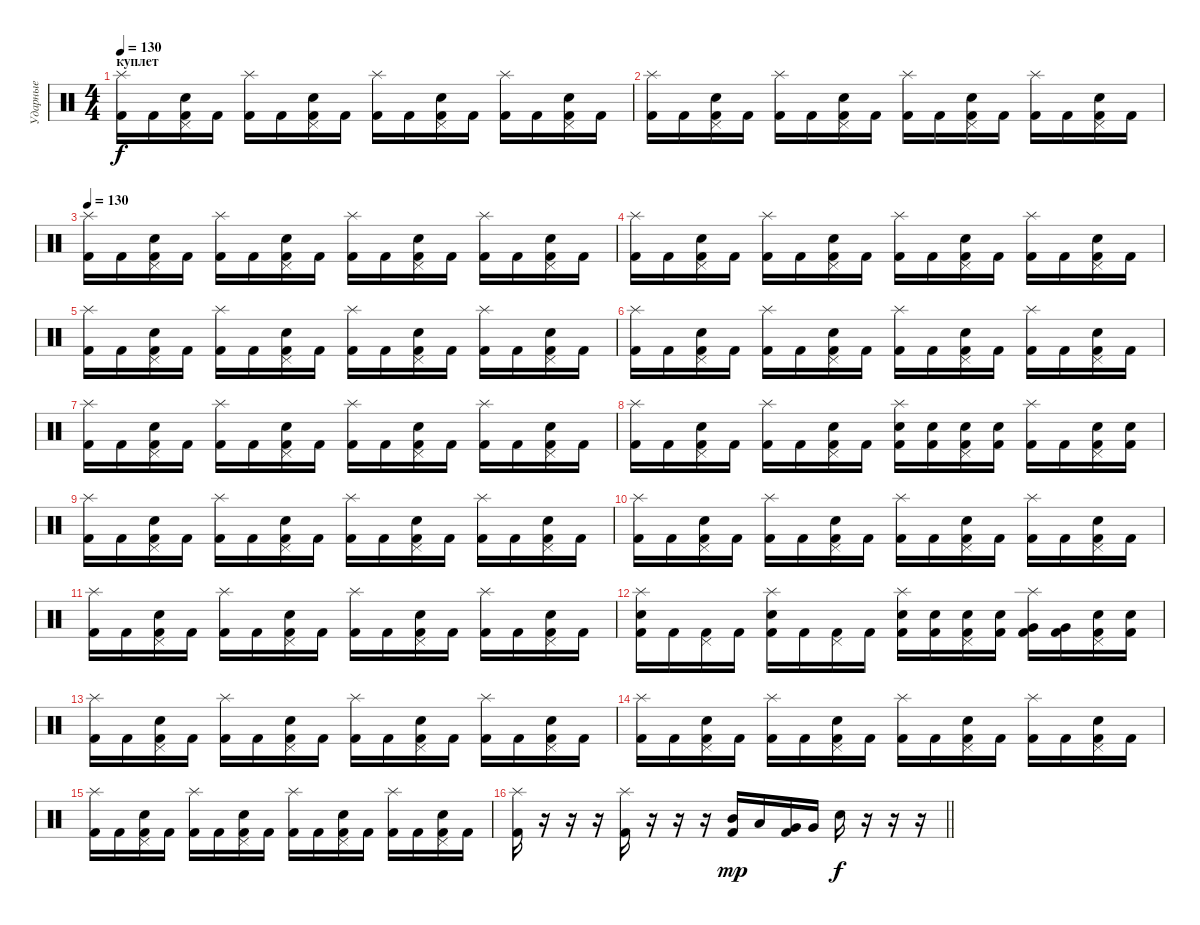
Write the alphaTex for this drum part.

\track ("Ударные" "Ударные") {instrument percussion}
\staff {score}
\articulation defaults
\ts (4 4)
\section ("" "куплет")
\tempo 130
\clef neutral
\ks c
("Splash (hit)" "Kick (hit) 2").16{dy f} "Kick (hit) 2".16 ("Pedal Hi-Hat (hit)" "Electric Snare (hit)" "Kick (hit) 2").16 "Kick (hit) 2".16 ("Splash (hit)" "Kick (hit) 2").16 "Kick (hit) 2".16 ("Pedal Hi-Hat (hit)" "Electric Snare (hit)" "Kick (hit) 2").16 "Kick (hit) 2".16 ("Splash (hit)" "Kick (hit) 2").16 "Kick (hit) 2".16 ("Pedal Hi-Hat (hit)" "Electric Snare (hit)" "Kick (hit) 2").16 "Kick (hit) 2".16 ("Splash (hit)" "Kick (hit) 2").16 "Kick (hit) 2".16 ("Pedal Hi-Hat (hit)" "Electric Snare (hit)" "Kick (hit) 2").16 "Kick (hit) 2".16 |
("Splash (hit)" "Kick (hit) 2").16 "Kick (hit) 2".16 ("Pedal Hi-Hat (hit)" "Electric Snare (hit)" "Kick (hit) 2").16 "Kick (hit) 2".16 ("Splash (hit)" "Kick (hit) 2").16 "Kick (hit) 2".16 ("Pedal Hi-Hat (hit)" "Electric Snare (hit)" "Kick (hit) 2").16 "Kick (hit) 2".16 ("Splash (hit)" "Kick (hit) 2").16 "Kick (hit) 2".16 ("Pedal Hi-Hat (hit)" "Electric Snare (hit)" "Kick (hit) 2").16 "Kick (hit) 2".16 ("Splash (hit)" "Kick (hit) 2").16 "Kick (hit) 2".16 ("Pedal Hi-Hat (hit)" "Electric Snare (hit)" "Kick (hit) 2").16 "Kick (hit) 2".16 |
\tempo 130
("Splash (hit)" "Kick (hit) 2").16 "Kick (hit) 2".16 ("Pedal Hi-Hat (hit)" "Electric Snare (hit)" "Kick (hit) 2").16 "Kick (hit) 2".16 ("Splash (hit)" "Kick (hit) 2").16 "Kick (hit) 2".16 ("Pedal Hi-Hat (hit)" "Electric Snare (hit)" "Kick (hit) 2").16 "Kick (hit) 2".16 ("Splash (hit)" "Kick (hit) 2").16 "Kick (hit) 2".16 ("Pedal Hi-Hat (hit)" "Electric Snare (hit)" "Kick (hit) 2").16 "Kick (hit) 2".16 ("Splash (hit)" "Kick (hit) 2").16 "Kick (hit) 2".16 ("Pedal Hi-Hat (hit)" "Electric Snare (hit)" "Kick (hit) 2").16 "Kick (hit) 2".16 |
("Splash (hit)" "Kick (hit) 2").16 "Kick (hit) 2".16 ("Pedal Hi-Hat (hit)" "Electric Snare (hit)" "Kick (hit) 2").16 "Kick (hit) 2".16 ("Splash (hit)" "Kick (hit) 2").16 "Kick (hit) 2".16 ("Pedal Hi-Hat (hit)" "Electric Snare (hit)" "Kick (hit) 2").16 "Kick (hit) 2".16 ("Splash (hit)" "Kick (hit) 2").16 "Kick (hit) 2".16 ("Pedal Hi-Hat (hit)" "Electric Snare (hit)" "Kick (hit) 2").16 "Kick (hit) 2".16 ("Splash (hit)" "Kick (hit) 2").16 "Kick (hit) 2".16 ("Pedal Hi-Hat (hit)" "Electric Snare (hit)" "Kick (hit) 2").16 "Kick (hit) 2".16 |
("Splash (hit)" "Kick (hit) 2").16 "Kick (hit) 2".16 ("Pedal Hi-Hat (hit)" "Electric Snare (hit)" "Kick (hit) 2").16 "Kick (hit) 2".16 ("Splash (hit)" "Kick (hit) 2").16 "Kick (hit) 2".16 ("Pedal Hi-Hat (hit)" "Electric Snare (hit)" "Kick (hit) 2").16 "Kick (hit) 2".16 ("Splash (hit)" "Kick (hit) 2").16 "Kick (hit) 2".16 ("Pedal Hi-Hat (hit)" "Electric Snare (hit)" "Kick (hit) 2").16 "Kick (hit) 2".16 ("Splash (hit)" "Kick (hit) 2").16 "Kick (hit) 2".16 ("Pedal Hi-Hat (hit)" "Electric Snare (hit)" "Kick (hit) 2").16 "Kick (hit) 2".16 |
("Splash (hit)" "Kick (hit) 2").16 "Kick (hit) 2".16 ("Pedal Hi-Hat (hit)" "Electric Snare (hit)" "Kick (hit) 2").16 "Kick (hit) 2".16 ("Splash (hit)" "Kick (hit) 2").16 "Kick (hit) 2".16 ("Pedal Hi-Hat (hit)" "Electric Snare (hit)" "Kick (hit) 2").16 "Kick (hit) 2".16 ("Splash (hit)" "Kick (hit) 2").16 "Kick (hit) 2".16 ("Pedal Hi-Hat (hit)" "Electric Snare (hit)" "Kick (hit) 2").16 "Kick (hit) 2".16 ("Splash (hit)" "Kick (hit) 2").16 "Kick (hit) 2".16 ("Pedal Hi-Hat (hit)" "Electric Snare (hit)" "Kick (hit) 2").16 "Kick (hit) 2".16 |
("Splash (hit)" "Kick (hit) 2").16 "Kick (hit) 2".16 ("Pedal Hi-Hat (hit)" "Electric Snare (hit)" "Kick (hit) 2").16 "Kick (hit) 2".16 ("Splash (hit)" "Kick (hit) 2").16 "Kick (hit) 2".16 ("Pedal Hi-Hat (hit)" "Electric Snare (hit)" "Kick (hit) 2").16 "Kick (hit) 2".16 ("Splash (hit)" "Kick (hit) 2").16 "Kick (hit) 2".16 ("Pedal Hi-Hat (hit)" "Electric Snare (hit)" "Kick (hit) 2").16 "Kick (hit) 2".16 ("Splash (hit)" "Kick (hit) 2").16 "Kick (hit) 2".16 ("Pedal Hi-Hat (hit)" "Electric Snare (hit)" "Kick (hit) 2").16 "Kick (hit) 2".16 |
("Splash (hit)" "Kick (hit) 2").16 "Kick (hit) 2".16 ("Pedal Hi-Hat (hit)" "Electric Snare (hit)" "Kick (hit) 2").16 "Kick (hit) 2".16 ("Splash (hit)" "Kick (hit) 2").16 "Kick (hit) 2".16 ("Pedal Hi-Hat (hit)" "Electric Snare (hit)" "Kick (hit) 2").16 "Kick (hit) 2".16 ("Splash (hit)" "Electric Snare (hit)" "Kick (hit) 2").16 ("Electric Snare (hit)" "Kick (hit) 2").16 ("Pedal Hi-Hat (hit)" "Electric Snare (hit)" "Kick (hit) 2").16 ("Electric Snare (hit)" "Kick (hit) 2").16 ("Splash (hit)" "Kick (hit) 2").16 "Kick (hit) 2".16 ("Pedal Hi-Hat (hit)" "Electric Snare (hit)" "Kick (hit) 2").16 ("Electric Snare (hit)" "Kick (hit) 2").16 |
("Splash (hit)" "Kick (hit) 2").16 "Kick (hit) 2".16 ("Pedal Hi-Hat (hit)" "Electric Snare (hit)" "Kick (hit) 2").16 "Kick (hit) 2".16 ("Splash (hit)" "Kick (hit) 2").16 "Kick (hit) 2".16 ("Pedal Hi-Hat (hit)" "Electric Snare (hit)" "Kick (hit) 2").16 "Kick (hit) 2".16 ("Splash (hit)" "Kick (hit) 2").16 "Kick (hit) 2".16 ("Pedal Hi-Hat (hit)" "Electric Snare (hit)" "Kick (hit) 2").16 "Kick (hit) 2".16 ("Splash (hit)" "Kick (hit) 2").16 "Kick (hit) 2".16 ("Pedal Hi-Hat (hit)" "Electric Snare (hit)" "Kick (hit) 2").16 "Kick (hit) 2".16 |
("Splash (hit)" "Kick (hit) 2").16 "Kick (hit) 2".16 ("Pedal Hi-Hat (hit)" "Electric Snare (hit)" "Kick (hit) 2").16 "Kick (hit) 2".16 ("Splash (hit)" "Kick (hit) 2").16 "Kick (hit) 2".16 ("Pedal Hi-Hat (hit)" "Electric Snare (hit)" "Kick (hit) 2").16 "Kick (hit) 2".16 ("Splash (hit)" "Kick (hit) 2").16 "Kick (hit) 2".16 ("Pedal Hi-Hat (hit)" "Electric Snare (hit)" "Kick (hit) 2").16 "Kick (hit) 2".16 ("Splash (hit)" "Kick (hit) 2").16 "Kick (hit) 2".16 ("Pedal Hi-Hat (hit)" "Electric Snare (hit)" "Kick (hit) 2").16 "Kick (hit) 2".16 |
("Splash (hit)" "Kick (hit) 2").16 "Kick (hit) 2".16 ("Pedal Hi-Hat (hit)" "Electric Snare (hit)" "Kick (hit) 2").16 "Kick (hit) 2".16 ("Splash (hit)" "Kick (hit) 2").16 "Kick (hit) 2".16 ("Pedal Hi-Hat (hit)" "Electric Snare (hit)" "Kick (hit) 2").16 "Kick (hit) 2".16 ("Splash (hit)" "Kick (hit) 2").16 "Kick (hit) 2".16 ("Pedal Hi-Hat (hit)" "Electric Snare (hit)" "Kick (hit) 2").16 "Kick (hit) 2".16 ("Splash (hit)" "Kick (hit) 2").16 "Kick (hit) 2".16 ("Pedal Hi-Hat (hit)" "Electric Snare (hit)" "Kick (hit) 2").16 "Kick (hit) 2".16 |
("Splash (hit)" "Electric Snare (hit)" "Kick (hit) 2").16 "Kick (hit) 2".16 ("Pedal Hi-Hat (hit)" "Kick (hit) 2").16 "Kick (hit) 2".16 ("Splash (hit)" "Electric Snare (hit)" "Kick (hit) 2").16 "Kick (hit) 2".16 ("Pedal Hi-Hat (hit)" "Kick (hit) 2").16 "Kick (hit) 2".16 ("Splash (hit)" "Electric Snare (hit)" "Kick (hit) 2").16 ("Electric Snare (hit)" "Kick (hit) 2").16 ("Pedal Hi-Hat (hit)" "Electric Snare (hit)" "Kick (hit) 2").16 ("Electric Snare (hit)" "Kick (hit) 2").16 ("Splash (hit)" "Very Low Tom (hit)" "Kick (hit) 2").16 ("Very Low Tom (hit)" "Kick (hit) 2").16 ("Pedal Hi-Hat (hit)" "Electric Snare (hit)" "Kick (hit) 2").16 ("Electric Snare (hit)" "Kick (hit) 2").16 |
("Splash (hit)" "Kick (hit) 2").16 "Kick (hit) 2".16 ("Pedal Hi-Hat (hit)" "Electric Snare (hit)" "Kick (hit) 2").16 "Kick (hit) 2".16 ("Splash (hit)" "Kick (hit) 2").16 "Kick (hit) 2".16 ("Pedal Hi-Hat (hit)" "Electric Snare (hit)" "Kick (hit) 2").16 "Kick (hit) 2".16 ("Splash (hit)" "Kick (hit) 2").16 "Kick (hit) 2".16 ("Pedal Hi-Hat (hit)" "Electric Snare (hit)" "Kick (hit) 2").16 "Kick (hit) 2".16 ("Splash (hit)" "Kick (hit) 2").16 "Kick (hit) 2".16 ("Pedal Hi-Hat (hit)" "Electric Snare (hit)" "Kick (hit) 2").16 "Kick (hit) 2".16 |
("Splash (hit)" "Kick (hit) 2").16 "Kick (hit) 2".16 ("Pedal Hi-Hat (hit)" "Electric Snare (hit)" "Kick (hit) 2").16 "Kick (hit) 2".16 ("Splash (hit)" "Kick (hit) 2").16 "Kick (hit) 2".16 ("Pedal Hi-Hat (hit)" "Electric Snare (hit)" "Kick (hit) 2").16 "Kick (hit) 2".16 ("Splash (hit)" "Kick (hit) 2").16 "Kick (hit) 2".16 ("Pedal Hi-Hat (hit)" "Electric Snare (hit)" "Kick (hit) 2").16 "Kick (hit) 2".16 ("Splash (hit)" "Kick (hit) 2").16 "Kick (hit) 2".16 ("Pedal Hi-Hat (hit)" "Electric Snare (hit)" "Kick (hit) 2").16 "Kick (hit) 2".16 |
("Splash (hit)" "Kick (hit) 2").16 "Kick (hit) 2".16 ("Pedal Hi-Hat (hit)" "Electric Snare (hit)" "Kick (hit) 2").16 "Kick (hit) 2".16 ("Splash (hit)" "Kick (hit) 2").16 "Kick (hit) 2".16 ("Pedal Hi-Hat (hit)" "Electric Snare (hit)" "Kick (hit) 2").16 "Kick (hit) 2".16 ("Splash (hit)" "Kick (hit) 2").16 "Kick (hit) 2".16 ("Pedal Hi-Hat (hit)" "Electric Snare (hit)" "Kick (hit) 2").16 "Kick (hit) 2".16 ("Splash (hit)" "Kick (hit) 2").16 "Kick (hit) 2".16 ("Pedal Hi-Hat (hit)" "Electric Snare (hit)" "Kick (hit) 2").16 "Kick (hit) 2".16 |
\barLineRight lightlight
("Splash (hit)" "Kick (hit) 2").16 r.16 r.16 r.16 ("Splash (hit)" "Kick (hit) 2").16 r.16 r.16 r.16 ("Mid Tom (hit)" "Kick (hit) 2").16{dy mp} "Low Tom (hit)".16 ("Very Low Tom (hit)" "Kick (hit) 2").16 "Very Low Tom (hit)".16 "Electric Snare (hit)".16{dy f} r.16 r.16 r.16
